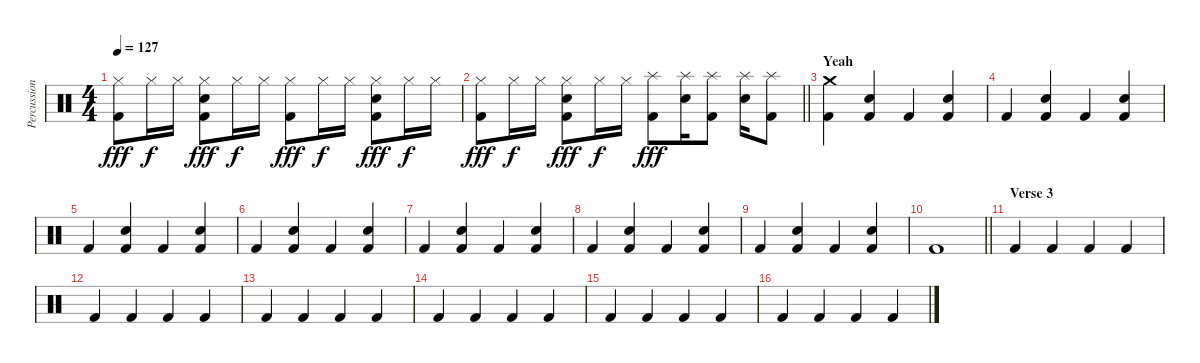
\track ("Percussion" "Percussion") {instrument percussion}
\staff {score}
\articulation defaults
\ts (4 4)
\tempo 127
\clef neutral
\ks c
("Hi-Hat (closed)" "Kick (hit) 2").8{dy fff} "Hi-Hat (closed)".16{dy f} "Hi-Hat (closed)".16 ("Hi-Hat (closed)" "Snare (hit) 2" "Kick (hit) 2").8{dy fff} "Hi-Hat (closed)".16{dy f} "Hi-Hat (closed)".16 ("Hi-Hat (closed)" "Kick (hit) 2").8{dy fff} "Hi-Hat (closed)".16{dy f} "Hi-Hat (closed)".16 ("Hi-Hat (closed)" "Snare (hit) 2" "Kick (hit) 2").8{dy fff} "Hi-Hat (closed)".16{dy f} "Hi-Hat (closed)".16 |
\barLineRight lightlight
("Hi-Hat (closed)" "Kick (hit) 2").8{dy fff} "Hi-Hat (closed)".16{dy f} "Hi-Hat (closed)".16 ("Hi-Hat (closed)" "Snare (hit) 2" "Kick (hit) 2").8{dy fff} "Hi-Hat (closed)".16{dy f} "Hi-Hat (closed)".16 ("Splash (hit)" "Kick (hit) 2").8{dy fff} ("Splash (hit)" "Snare (hit) 2").16 ("Splash (hit)" "Kick (hit) 2").8 ("Splash (hit)" "Snare (hit) 2").16 ("Splash (hit)" "Kick (hit) 2").8 |
\section ("" "Yeah")
("Crash medium (hit)" "Kick (hit) 2").4 ("Snare (hit) 2" "Kick (hit) 2").4 "Kick (hit) 2".4 ("Snare (hit) 2" "Kick (hit) 2").4 |
"Kick (hit) 2".4 ("Snare (hit) 2" "Kick (hit) 2").4 "Kick (hit) 2".4 ("Snare (hit) 2" "Kick (hit) 2").4 |
"Kick (hit) 2".4 ("Snare (hit) 2" "Kick (hit) 2").4 "Kick (hit) 2".4 ("Snare (hit) 2" "Kick (hit) 2").4 |
"Kick (hit) 2".4 ("Snare (hit) 2" "Kick (hit) 2").4 "Kick (hit) 2".4 ("Snare (hit) 2" "Kick (hit) 2").4 |
"Kick (hit) 2".4 ("Snare (hit) 2" "Kick (hit) 2").4 "Kick (hit) 2".4 ("Snare (hit) 2" "Kick (hit) 2").4 |
"Kick (hit) 2".4 ("Snare (hit) 2" "Kick (hit) 2").4 "Kick (hit) 2".4 ("Snare (hit) 2" "Kick (hit) 2").4 |
"Kick (hit) 2".4 ("Snare (hit) 2" "Kick (hit) 2").4 "Kick (hit) 2".4 ("Snare (hit) 2" "Kick (hit) 2").4 |
\barLineRight lightlight "Kick (hit) 2".1
|
\section ("" "Verse 3")
"Kick (hit) 2".4 "Kick (hit) 2".4 "Kick (hit) 2".4 "Kick (hit) 2".4 |
"Kick (hit) 2".4 "Kick (hit) 2".4 "Kick (hit) 2".4 "Kick (hit) 2".4 |
"Kick (hit) 2".4 "Kick (hit) 2".4 "Kick (hit) 2".4 "Kick (hit) 2".4 |
"Kick (hit) 2".4 "Kick (hit) 2".4 "Kick (hit) 2".4 "Kick (hit) 2".4 |
"Kick (hit) 2".4 "Kick (hit) 2".4 "Kick (hit) 2".4 "Kick (hit) 2".4 |
"Kick (hit) 2".4 "Kick (hit) 2".4 "Kick (hit) 2".4 "Kick (hit) 2".4
